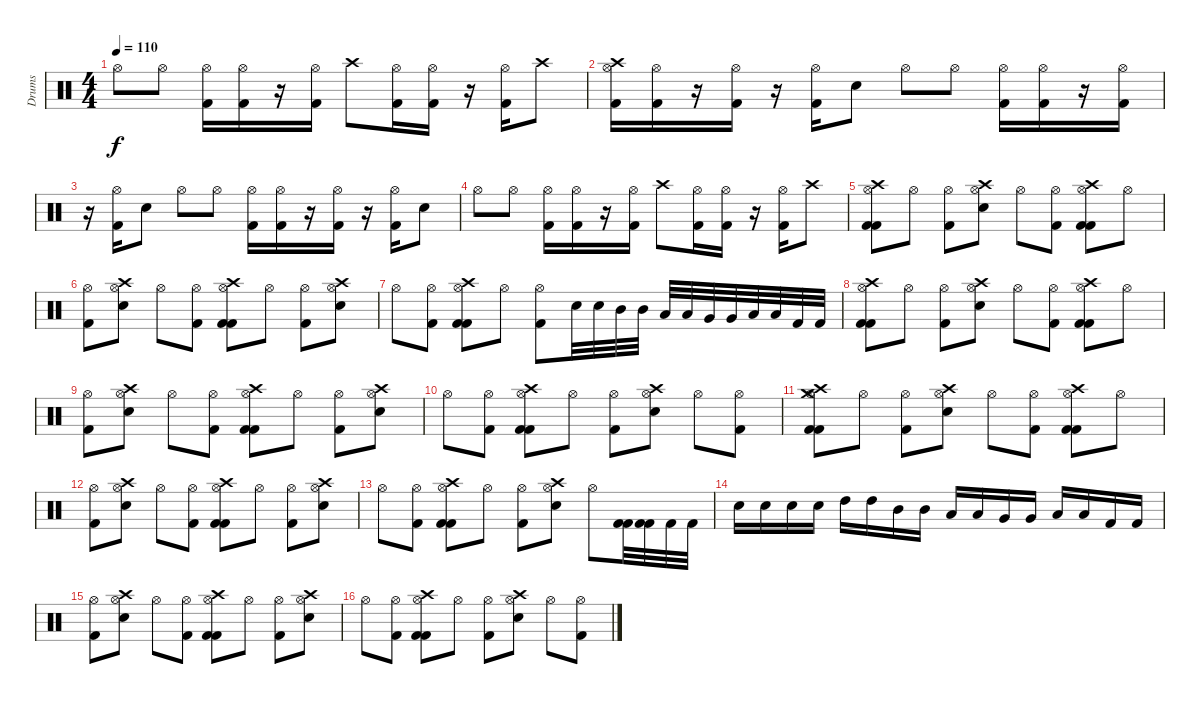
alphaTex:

\track ("Drums" "Drums") {instrument percussion}
\staff {score}
\articulation defaults
\ts (4 4)
\tempo 110
\clef neutral
\ks c "Hi-Hat (open)".8{dy f} "Hi-Hat (open)".8
("Hi-Hat (open)" "Kick (hit) 2").16 ("Hi-Hat (open)" "Kick (hit) 2").16 r.16 ("Hi-Hat (open)" "Kick (hit) 2").16 "Crash high (hit)".8 ("Hi-Hat (open)" "Kick (hit) 2").16 ("Hi-Hat (open)" "Kick (hit) 2").16 r.16 ("Hi-Hat (open)" "Kick (hit) 2").16 "Crash high (hit)".8 |
("Crash high (hit)" "Hi-Hat (open)" "Kick (hit) 2").16 ("Hi-Hat (open)" "Kick (hit) 2").16 r.16 ("Hi-Hat (open)" "Kick (hit) 2").16 r.16 ("Hi-Hat (open)" "Kick (hit) 2").16 "Electric Snare (hit)".8 "Hi-Hat (open)".8 "Hi-Hat (open)".8 ("Hi-Hat (open)" "Kick (hit) 2").16 ("Hi-Hat (open)" "Kick (hit) 2").16 r.16 ("Hi-Hat (open)" "Kick (hit) 2").16 |
r.16 ("Hi-Hat (open)" "Kick (hit) 2").16 "Electric Snare (hit)".8 "Hi-Hat (open)".8 "Hi-Hat (open)".8 ("Hi-Hat (open)" "Kick (hit) 2").16 ("Hi-Hat (open)" "Kick (hit) 2").16 r.16 ("Hi-Hat (open)" "Kick (hit) 2").16 r.16 ("Hi-Hat (open)" "Kick (hit) 2").16 "Electric Snare (hit)".8 |
"Hi-Hat (open)".8 "Hi-Hat (open)".8 ("Hi-Hat (open)" "Kick (hit) 2").16 ("Hi-Hat (open)" "Kick (hit) 2").16 r.16 ("Hi-Hat (open)" "Kick (hit) 2").16 "Crash high (hit)".8 ("Hi-Hat (open)" "Kick (hit) 2").16 ("Hi-Hat (open)" "Kick (hit) 2").16 r.16 ("Hi-Hat (open)" "Kick (hit) 2").16 "Crash high (hit)".8 |
("Crash high (hit)" "Hi-Hat (open)" "Kick (hit) 2" "Kick (hit) 2").8 "Hi-Hat (open)".8 ("Hi-Hat (open)" "Kick (hit) 2").8 ("Crash high (hit)" "Hi-Hat (open)" "Electric Snare (hit)").8 "Hi-Hat (open)".8 ("Hi-Hat (open)" "Kick (hit) 2").8 ("Crash high (hit)" "Hi-Hat (open)" "Kick (hit) 2" "Kick (hit) 2").8 "Hi-Hat (open)".8 |
("Hi-Hat (open)" "Kick (hit) 2").8 ("Crash high (hit)" "Hi-Hat (open)" "Electric Snare (hit)").8 "Hi-Hat (open)".8 ("Hi-Hat (open)" "Kick (hit) 2").8 ("Crash high (hit)" "Hi-Hat (open)" "Kick (hit) 2" "Kick (hit) 2").8 "Hi-Hat (open)".8 ("Hi-Hat (open)" "Kick (hit) 2").8 ("Crash high (hit)" "Hi-Hat (open)" "Electric Snare (hit)").8 |
"Hi-Hat (open)".8 ("Hi-Hat (open)" "Kick (hit) 2").8 ("Crash high (hit)" "Hi-Hat (open)" "Kick (hit) 2" "Kick (hit) 2").8 "Hi-Hat (open)".8 ("Hi-Hat (open)" "Kick (hit) 2").8 "Electric Snare (hit)".32 "Electric Snare (hit)".32 "Mid Tom (hit)".32 "Mid Tom (hit)".32 "Low Tom (hit)".32 "Low Tom (hit)".32 "Very Low Tom (hit)".32 "Very Low Tom (hit)".32 "Low Floor Tom (hit)".32 "Low Floor Tom (hit)".32 "Kick (hit) 2".32 "Kick (hit) 2".32 |
("Crash high (hit)" "Hi-Hat (open)" "Kick (hit) 2" "Kick (hit) 2").8 "Hi-Hat (open)".8 ("Hi-Hat (open)" "Kick (hit) 2").8 ("Crash high (hit)" "Hi-Hat (open)" "Electric Snare (hit)").8 "Hi-Hat (open)".8 ("Hi-Hat (open)" "Kick (hit) 2").8 ("Crash high (hit)" "Hi-Hat (open)" "Kick (hit) 2" "Kick (hit) 2").8 "Hi-Hat (open)".8 |
("Hi-Hat (open)" "Kick (hit) 2").8 ("Crash high (hit)" "Hi-Hat (open)" "Electric Snare (hit)").8 "Hi-Hat (open)".8 ("Hi-Hat (open)" "Kick (hit) 2").8 ("Crash high (hit)" "Hi-Hat (open)" "Kick (hit) 2" "Kick (hit) 2").8 "Hi-Hat (open)".8 ("Hi-Hat (open)" "Kick (hit) 2").8 ("Crash high (hit)" "Hi-Hat (open)" "Electric Snare (hit)").8 |
"Hi-Hat (open)".8 ("Hi-Hat (open)" "Kick (hit) 2").8 ("Crash high (hit)" "Hi-Hat (open)" "Kick (hit) 2" "Kick (hit) 2").8 "Hi-Hat (open)".8 ("Hi-Hat (open)" "Kick (hit) 2").8 ("Crash high (hit)" "Hi-Hat (open)" "Electric Snare (hit)").8 "Hi-Hat (open)".8 ("Hi-Hat (open)" "Kick (hit) 2").8 |
("Crash high (hit)" "Crash medium (hit)" "Hi-Hat (open)" "Kick (hit) 2" "Kick (hit) 2").8 "Hi-Hat (open)".8 ("Hi-Hat (open)" "Kick (hit) 2").8 ("Crash high (hit)" "Hi-Hat (open)" "Electric Snare (hit)").8 "Hi-Hat (open)".8 ("Hi-Hat (open)" "Kick (hit) 2").8 ("Crash high (hit)" "Hi-Hat (open)" "Kick (hit) 2" "Kick (hit) 2").8 "Hi-Hat (open)".8 |
("Hi-Hat (open)" "Kick (hit) 2").8 ("Crash high (hit)" "Hi-Hat (open)" "Electric Snare (hit)").8 "Hi-Hat (open)".8 ("Hi-Hat (open)" "Kick (hit) 2").8 ("Crash high (hit)" "Hi-Hat (open)" "Kick (hit) 2" "Kick (hit) 2").8 "Hi-Hat (open)".8 ("Hi-Hat (open)" "Kick (hit) 2").8 ("Crash high (hit)" "Hi-Hat (open)" "Electric Snare (hit)").8 |
"Hi-Hat (open)".8 ("Hi-Hat (open)" "Kick (hit) 2").8 ("Crash high (hit)" "Hi-Hat (open)" "Kick (hit) 2" "Kick (hit) 2").8 "Hi-Hat (open)".8 ("Hi-Hat (open)" "Kick (hit) 2").8 ("Crash high (hit)" "Hi-Hat (open)" "Electric Snare (hit)").8 "Hi-Hat (open)".8 ("Kick (hit) 2" "Kick (hit) 2").32 ("Kick (hit) 2" "Kick (hit) 2").32 "Kick (hit) 2".32 "Kick (hit) 2".32 |
"Electric Snare (hit)".16 "Electric Snare (hit)".16 "Electric Snare (hit)".16 "Electric Snare (hit)".16 "High Tom (hit)".16 "High Tom (hit)".16 "Mid Tom (hit)".16 "Mid Tom (hit)".16 "Low Tom (hit)".16 "Low Tom (hit)".16 "Very Low Tom (hit)".16 "Very Low Tom (hit)".16 "Low Floor Tom (hit)".16 "Low Floor Tom (hit)".16 "Kick (hit) 2".16 "Kick (hit) 2".16 |
("Hi-Hat (open)" "Kick (hit) 2").8 ("Crash high (hit)" "Hi-Hat (open)" "Electric Snare (hit)").8 "Hi-Hat (open)".8 ("Hi-Hat (open)" "Kick (hit) 2").8 ("Crash high (hit)" "Hi-Hat (open)" "Kick (hit) 2" "Kick (hit) 2").8 "Hi-Hat (open)".8 ("Hi-Hat (open)" "Kick (hit) 2").8 ("Crash high (hit)" "Hi-Hat (open)" "Electric Snare (hit)").8 |
"Hi-Hat (open)".8 ("Hi-Hat (open)" "Kick (hit) 2").8 ("Crash high (hit)" "Hi-Hat (open)" "Kick (hit) 2" "Kick (hit) 2").8 "Hi-Hat (open)".8 ("Hi-Hat (open)" "Kick (hit) 2").8 ("Crash high (hit)" "Hi-Hat (open)" "Electric Snare (hit)").8 "Hi-Hat (open)".8 ("Hi-Hat (open)" "Kick (hit) 2").8
